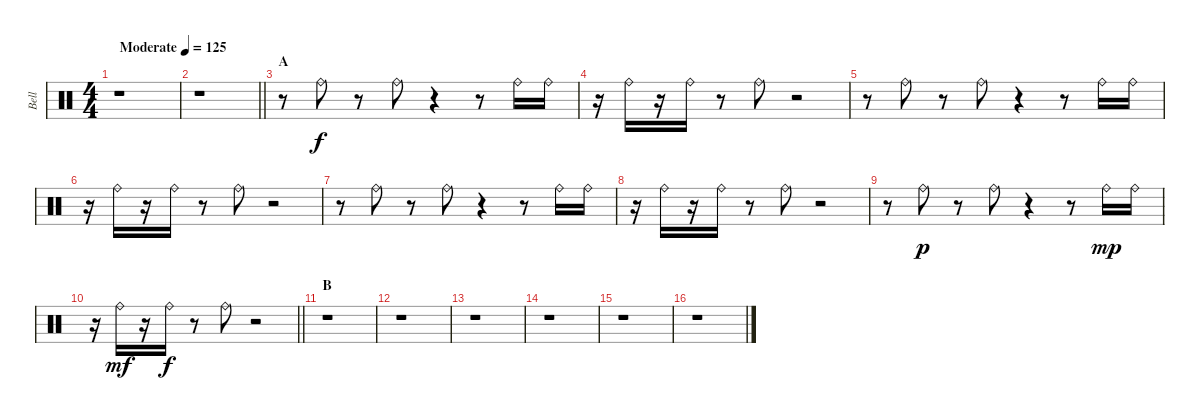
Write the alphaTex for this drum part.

\track ("Bell" "Bell") {instrument percussion}
\staff {score}
\articulation defaults
\ts (4 4)
\tempo (125 "Moderate")
\clef neutral
\ks c
r.1{dy f} |
\barLineRight lightlight
r.1 |
\section ("" "A")
r.8 "Ride (bell)".8 r.8 "Ride (bell)".8 r.4 r.8 "Ride (bell)".16 "Ride (bell)".16 |
r.16 "Ride (bell)".16 r.16 "Ride (bell)".16 r.8 "Ride (bell)".8 r.2 |
r.8 "Ride (bell)".8 r.8 "Ride (bell)".8 r.4 r.8 "Ride (bell)".16 "Ride (bell)".16 |
r.16 "Ride (bell)".16 r.16 "Ride (bell)".16 r.8 "Ride (bell)".8 r.2 |
r.8 "Ride (bell)".8 r.8 "Ride (bell)".8 r.4 r.8 "Ride (bell)".16 "Ride (bell)".16 |
r.16 "Ride (bell)".16 r.16 "Ride (bell)".16 r.8 "Ride (bell)".8 r.2 |
r.8 "Ride (bell)".8{dy p} r.8 "Ride (bell)".8 r.4 r.8 "Ride (bell)".16{dy mp} "Ride (bell)".16 |
\barLineRight lightlight
r.16 "Ride (bell)".16{dy mf} r.16 "Ride (bell)".16{dy f} r.8 "Ride (bell)".8 r.2 |
\section ("" "B")
r.1 |
r.1 |
r.1 |
r.1 |
r.1 |
r.1
